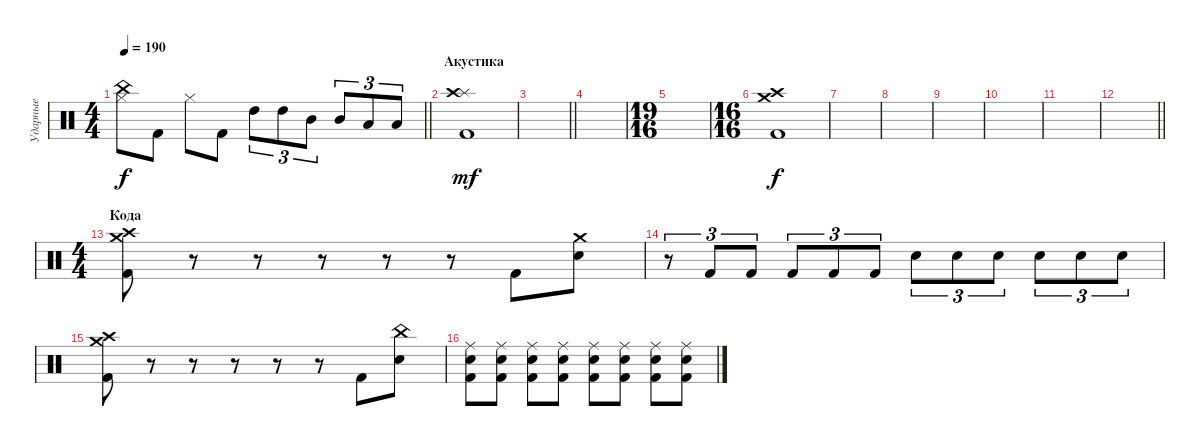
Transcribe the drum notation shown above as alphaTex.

\track ("Ударные" "Ударные") {instrument percussion}
\staff {score}
\articulation defaults
\ts (4 4)
\tempo 190
\clef neutral
\barLineRight lightlight
\ks c
("Hi-Hat (closed)" "China (hit)").8{dy f} "Kick (hit) 2".8 "Hi-Hat (closed)".8 "Kick (hit) 2".8 "High Tom (hit)".8{tu (3 2)} "High Tom (hit)".8{tu (3 2)} "Mid Tom (hit)".8{tu (3 2)} "Mid Tom (hit)".8{tu (3 2)} "Low Tom (hit)".8{tu (3 2)} "Low Tom (hit)".8{tu (3 2)} |
\section ("" "Акустика")
("Kick (hit) 2" "Splash (hit)" "Crash high (hit)").1{dy mf} |
\barLineRight lightlight
|
|
\ts (19 16)
|
\ts (16 16)
("Kick (hit) 2" "Crash high (hit)" "Crash medium (hit)").1{dy f} |
|
|
|
|
|
\barLineRight lightlight
|
\ts (4 4)
\section ("" "Кода")
("Kick (hit) 2" "Crash medium (hit)" "Crash high (hit)").8 r.8 r.8 r.8 r.8 r.8 "Kick (hit) 2".8 ("Electric Snare (hit)" "Crash medium (hit)").8 |
r.8{tu (3 2)} "Kick (hit) 2".8{tu (3 2)} "Kick (hit) 2".8{tu (3 2)} "Kick (hit) 2".8{tu (3 2)} "Kick (hit) 2".8{tu (3 2)} "Kick (hit) 2".8{tu (3 2)} "Electric Snare (hit)".8{tu (3 2)} "Electric Snare (hit)".8{tu (3 2)} "Electric Snare (hit)".8{tu (3 2)} "Electric Snare (hit)".8{tu (3 2)} "Electric Snare (hit)".8{tu (3 2)} "Electric Snare (hit)".8{tu (3 2)} |
("Kick (hit) 2" "Crash medium (hit)" "Crash high (hit)").8 r.8 r.8 r.8 r.8 r.8 "Kick (hit) 2".8 ("Electric Snare (hit)" "China (hit)").8 |
("Kick (hit) 2" "Electric Snare (hit)" "Ride (middle)").8 ("Kick (hit) 2" "Electric Snare (hit)" "Ride (middle)").8 ("Kick (hit) 2" "Electric Snare (hit)" "Ride (middle)").8 ("Kick (hit) 2" "Electric Snare (hit)" "Ride (middle)").8 ("Kick (hit) 2" "Electric Snare (hit)" "Ride (middle)").8 ("Kick (hit) 2" "Electric Snare (hit)" "Ride (middle)").8 ("Kick (hit) 2" "Electric Snare (hit)" "Ride (middle)").8 ("Kick (hit) 2" "Electric Snare (hit)" "Ride (middle)").8
